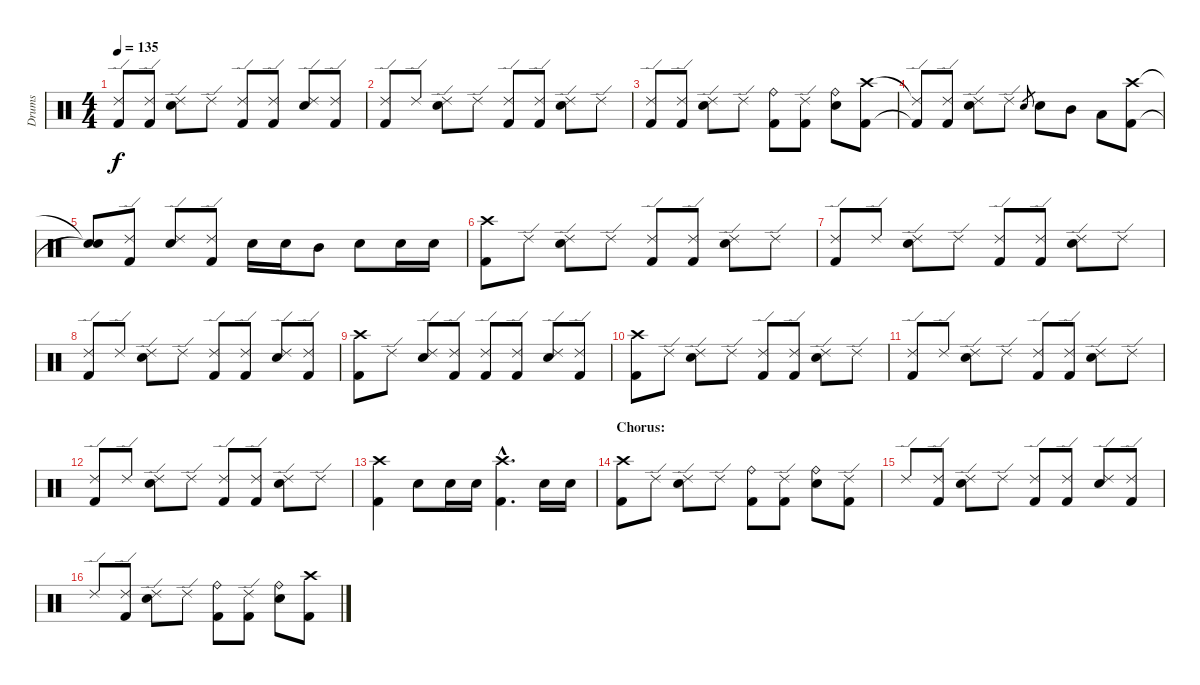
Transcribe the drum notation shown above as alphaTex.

\track ("Drums" "Drums") {instrument percussion}
\staff {score}
\articulation defaults
\ts (4 4)
\tempo 135
\clef neutral
\ks c
("Ride (edge) 2" "Kick (hit) 2").8{dy f} ("Ride (edge) 2" "Kick (hit) 2").8 ("Ride (edge) 2" "Electric Snare (hit)").8 "Ride (edge) 2".8 ("Ride (edge) 2" "Kick (hit) 2").8 ("Ride (edge) 2" "Kick (hit) 2").8 ("Ride (edge) 2" "Electric Snare (hit)").8 ("Ride (edge) 2" "Kick (hit) 2").8 |
("Ride (edge) 2" "Kick (hit) 2").8 "Ride (edge) 2".8 ("Ride (edge) 2" "Electric Snare (hit)").8 "Ride (edge) 2".8 ("Ride (edge) 2" "Kick (hit) 2").8 ("Ride (edge) 2" "Kick (hit) 2").8 ("Ride (edge) 2" "Electric Snare (hit)").8 "Ride (edge) 2".8 |
("Ride (edge) 2" "Kick (hit) 2").8 ("Ride (edge) 2" "Kick (hit) 2").8 ("Ride (edge) 2" "Electric Snare (hit)").8 "Ride (edge) 2".8 ("Ride (bell)" "Kick (hit) 2").8 ("Ride (edge) 2" "Kick (hit) 2").8 ("Ride (bell)" "Electric Snare (hit)").8 ("Crash high (hit)" "Kick (hit) 2").8 |
("Ride (edge) 2"{t} "Kick (hit) 2"{t}).8 ("Ride (edge) 2" "Kick (hit) 2").8 ("Ride (edge) 2" "Electric Snare (hit)").8 "Ride (edge) 2".8 "Electric Snare (hit)".8{gr} "Electric Snare (hit)".8 "Mid Tom (hit)".8 "Low Tom (hit)".8 ("Crash high (hit)" "Kick (hit) 2").8 |
("Snare (hit)"{t} "Snare (hit)"{t}).8 ("Ride (edge) 2" "Kick (hit) 2").8 ("Ride (edge) 2" "Electric Snare (hit)").8 ("Ride (edge) 2" "Kick (hit) 2").8 "Electric Snare (hit)".16 "Electric Snare (hit)".16 "Mid Tom (hit)".8 "Electric Snare (hit)".8 "Electric Snare (hit)".16 "Electric Snare (hit)".16 |
("Crash high (hit)" "Kick (hit) 2").8 "Ride (edge) 2".8 ("Ride (edge) 2" "Electric Snare (hit)").8 "Ride (edge) 2".8 ("Ride (edge) 2" "Kick (hit) 2").8 ("Ride (edge) 2" "Kick (hit) 2").8 ("Ride (edge) 2" "Electric Snare (hit)").8 "Ride (edge) 2".8 |
("Ride (edge) 2" "Kick (hit) 2").8 "Ride (edge) 2".8 ("Ride (edge) 2" "Electric Snare (hit)").8 "Ride (edge) 2".8 ("Ride (edge) 2" "Kick (hit) 2").8 ("Ride (edge) 2" "Kick (hit) 2").8 ("Ride (edge) 2" "Electric Snare (hit)").8 "Ride (edge) 2".8 |
("Ride (edge) 2" "Kick (hit) 2").8 "Ride (edge) 2".8 ("Ride (edge) 2" "Electric Snare (hit)").8 "Ride (edge) 2".8 ("Ride (edge) 2" "Kick (hit) 2").8 ("Ride (edge) 2" "Kick (hit) 2").8 ("Ride (edge) 2" "Electric Snare (hit)").8 ("Ride (edge) 2" "Kick (hit) 2").8 |
("Crash high (hit)" "Kick (hit) 2").8 "Ride (edge) 2".8 ("Ride (edge) 2" "Electric Snare (hit)").8 ("Ride (edge) 2" "Kick (hit) 2").8 ("Ride (edge) 2" "Kick (hit) 2").8 ("Ride (edge) 2" "Kick (hit) 2").8 ("Ride (edge) 2" "Electric Snare (hit)").8 ("Ride (edge) 2" "Kick (hit) 2").8 |
("Crash high (hit)" "Kick (hit) 2").8 "Ride (edge) 2".8 ("Ride (edge) 2" "Electric Snare (hit)").8 "Ride (edge) 2".8 ("Ride (edge) 2" "Kick (hit) 2").8 ("Ride (edge) 2" "Kick (hit) 2").8 ("Ride (edge) 2" "Electric Snare (hit)").8 "Ride (edge) 2".8 |
("Ride (edge) 2" "Kick (hit) 2").8 "Ride (edge) 2".8 ("Ride (edge) 2" "Electric Snare (hit)").8 "Ride (edge) 2".8 ("Ride (edge) 2" "Kick (hit) 2").8 ("Ride (edge) 2" "Kick (hit) 2").8 ("Ride (edge) 2" "Electric Snare (hit)").8 "Ride (edge) 2".8 |
("Ride (edge) 2" "Kick (hit) 2").8 "Ride (edge) 2".8 ("Ride (edge) 2" "Electric Snare (hit)").8 "Ride (edge) 2".8 ("Ride (edge) 2" "Kick (hit) 2").8 ("Ride (edge) 2" "Kick (hit) 2").8 ("Ride (edge) 2" "Electric Snare (hit)").8 "Ride (edge) 2".8 |
("Crash high (hit)" "Kick (hit) 2").4 "Electric Snare (hit)".8 "Electric Snare (hit)".16 "Electric Snare (hit)".16 ("Crash high (hit)"{hac} "Kick (hit) 2"{hac}).4{d} "Electric Snare (hit)".16 "Electric Snare (hit)".16 |
\section ("" "Chorus:")
("Crash high (hit)" "Kick (hit) 2").8 "Ride (edge) 2".8 ("Ride (edge) 2" "Electric Snare (hit)").8 "Ride (edge) 2".8 ("Ride (bell)" "Kick (hit) 2").8 ("Ride (edge) 2" "Kick (hit) 2").8 ("Ride (bell)" "Electric Snare (hit)").8 ("Ride (edge) 2" "Kick (hit) 2").8 |
"Ride (edge) 2".8 ("Ride (edge) 2" "Kick (hit) 2").8 ("Ride (edge) 2" "Electric Snare (hit)").8 "Ride (edge) 2".8 ("Ride (edge) 2" "Kick (hit) 2").8 ("Ride (edge) 2" "Kick (hit) 2").8 ("Ride (edge) 2" "Electric Snare (hit)").8 ("Ride (edge) 2" "Kick (hit) 2").8 |
"Ride (edge) 2".8 ("Ride (edge) 2" "Kick (hit) 2").8 ("Ride (edge) 2" "Electric Snare (hit)").8 "Ride (edge) 2".8 ("Ride (bell)" "Kick (hit) 2").8 ("Ride (edge) 2" "Kick (hit) 2").8 ("Ride (bell)" "Electric Snare (hit)").8 ("Crash high (hit)" "Kick (hit) 2").8
